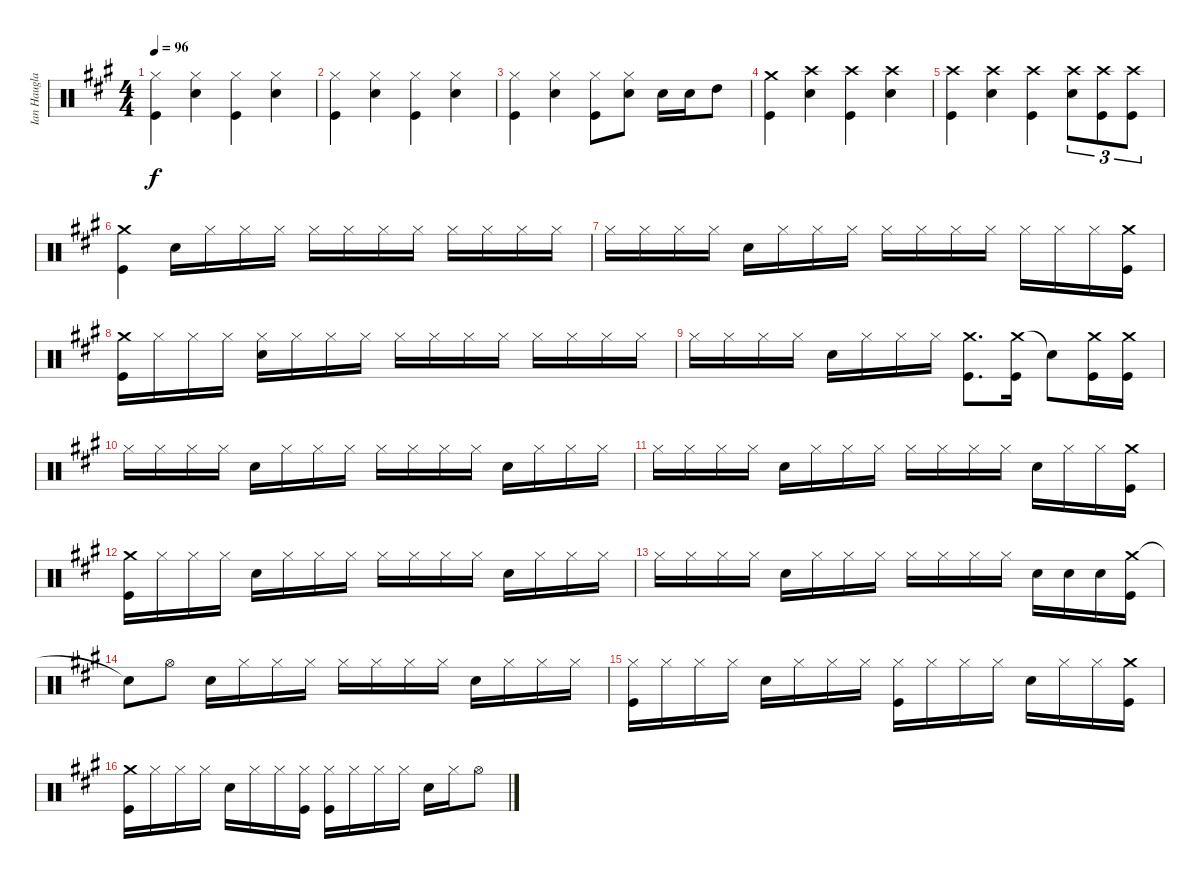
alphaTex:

\track ("Ian Haugland" "Ian Haugla") {instrument percussion}
\staff {score}
\articulation defaults
\ts (4 4)
\tempo 96
\clef neutral
\ks a
("Hi-Hat (closed)" "Kick (hit)").4{dy f} ("Hi-Hat (closed)" "Snare (hit) 2").4 ("Hi-Hat (closed)" "Kick (hit)").4 ("Hi-Hat (closed)" "Snare (hit) 2").4 |
("Hi-Hat (closed)" "Kick (hit)").4 ("Hi-Hat (closed)" "Snare (hit) 2").4 ("Hi-Hat (closed)" "Kick (hit)").4 ("Hi-Hat (closed)" "Snare (hit) 2").4 |
("Hi-Hat (closed)" "Kick (hit)").4 ("Hi-Hat (closed)" "Snare (hit) 2").4 ("Hi-Hat (closed)" "Kick (hit)").8 ("Hi-Hat (closed)" "Snare (hit) 2").8 "Snare (hit) 2".16 "Snare (hit) 2".16 "High Tom (hit)".8 |
("Crash medium (hit)" "Kick (hit)").4 ("Crash high (hit)" "Snare (hit) 2").4 ("Crash high (hit)" "Kick (hit)").4 ("Crash high (hit)" "Snare (hit) 2").4 |
("Crash high (hit)" "Kick (hit)").4 ("Crash high (hit)" "Snare (hit) 2").4 ("Crash high (hit)" "Kick (hit)").4 ("Crash high (hit)" "Snare (hit) 2").8{tu (3 2)} ("Crash high (hit)" "Kick (hit)").8{tu (3 2)} ("Crash high (hit)" "Kick (hit)").8{tu (3 2)} |
("Crash medium (hit)" "Kick (hit)").4 "Snare (hit) 2".16 "Hi-Hat (closed)".16 "Hi-Hat (closed)".16 "Hi-Hat (closed)".16 "Hi-Hat (closed)".16 "Hi-Hat (closed)".16 "Hi-Hat (closed)".16 "Hi-Hat (closed)".16 "Hi-Hat (closed)".16 "Hi-Hat (closed)".16 "Hi-Hat (closed)".16 "Hi-Hat (closed)".16 |
"Hi-Hat (closed)".16 "Hi-Hat (closed)".16 "Hi-Hat (closed)".16 "Hi-Hat (closed)".16 "Snare (hit) 2".16 "Hi-Hat (closed)".16 "Hi-Hat (closed)".16 "Hi-Hat (closed)".16 "Hi-Hat (closed)".16 "Hi-Hat (closed)".16 "Hi-Hat (closed)".16 "Hi-Hat (closed)".16 "Hi-Hat (closed)".16 "Hi-Hat (closed)".16 "Hi-Hat (closed)".16 ("Crash medium (hit)" "Kick (hit)").16 |
("Crash medium (hit)" "Kick (hit)").16 "Hi-Hat (closed)".16 "Hi-Hat (closed)".16 "Hi-Hat (closed)".16 ("Hi-Hat (closed)" "Snare (hit) 2").16 "Hi-Hat (closed)".16 "Hi-Hat (closed)".16 "Hi-Hat (closed)".16 "Hi-Hat (closed)".16 "Hi-Hat (closed)".16 "Hi-Hat (closed)".16 "Hi-Hat (closed)".16 "Hi-Hat (closed)".16 "Hi-Hat (closed)".16 "Hi-Hat (closed)".16 "Hi-Hat (closed)".16 |
"Hi-Hat (closed)".16 "Hi-Hat (closed)".16 "Hi-Hat (closed)".16 "Hi-Hat (closed)".16 "Snare (hit) 2".16 "Hi-Hat (closed)".16 "Hi-Hat (closed)".16 "Hi-Hat (closed)".16 ("Crash medium (hit)" "Kick (hit)").8{d} ("Crash medium (hit)" "Kick (hit)").16 "Snare (hit)"{t}.8 ("Crash medium (hit)" "Kick (hit)").16 ("Crash medium (hit)" "Kick (hit)").16 |
"Hi-Hat (closed)".16 "Hi-Hat (closed)".16 "Hi-Hat (closed)".16 "Hi-Hat (closed)".16 "Snare (hit) 2".16 "Hi-Hat (closed)".16 "Hi-Hat (closed)".16 "Hi-Hat (closed)".16 "Hi-Hat (closed)".16 "Hi-Hat (closed)".16 "Hi-Hat (closed)".16 "Hi-Hat (closed)".16 "Snare (hit) 2".16 "Hi-Hat (closed)".16 "Hi-Hat (closed)".16 "Hi-Hat (closed)".16 |
"Hi-Hat (closed)".16 "Hi-Hat (closed)".16 "Hi-Hat (closed)".16 "Hi-Hat (closed)".16 "Snare (hit) 2".16 "Hi-Hat (closed)".16 "Hi-Hat (closed)".16 "Hi-Hat (closed)".16 "Hi-Hat (closed)".16 "Hi-Hat (closed)".16 "Hi-Hat (closed)".16 "Hi-Hat (closed)".16 "Snare (hit) 2".16 "Hi-Hat (closed)".16 "Hi-Hat (closed)".16 ("Crash medium (hit)" "Kick (hit)").16 |
("Crash medium (hit)" "Kick (hit)").16 "Hi-Hat (closed)".16 "Hi-Hat (closed)".16 "Hi-Hat (closed)".16 "Snare (hit) 2".16 "Hi-Hat (closed)".16 "Hi-Hat (closed)".16 "Hi-Hat (closed)".16 "Hi-Hat (closed)".16 "Hi-Hat (closed)".16 "Hi-Hat (closed)".16 "Hi-Hat (closed)".16 "Snare (hit) 2".16 "Hi-Hat (closed)".16 "Hi-Hat (closed)".16 "Hi-Hat (closed)".16 |
"Hi-Hat (closed)".16 "Hi-Hat (closed)".16 "Hi-Hat (closed)".16 "Hi-Hat (closed)".16 "Snare (hit) 2".16 "Hi-Hat (closed)".16 "Hi-Hat (closed)".16 "Hi-Hat (closed)".16 "Hi-Hat (closed)".16 "Hi-Hat (closed)".16 "Hi-Hat (closed)".16 "Hi-Hat (closed)".16 "Snare (hit) 2".16 "Snare (hit) 2".16 "Snare (hit) 2".16 ("Crash medium (hit)" "Kick (hit)").16 |
"Snare (hit)"{t}.8 "Hi-Hat (open)".8 "Snare (hit) 2".16 "Hi-Hat (closed)".16 "Hi-Hat (closed)".16 "Hi-Hat (closed)".16 "Hi-Hat (closed)".16 "Hi-Hat (closed)".16 "Hi-Hat (closed)".16 "Hi-Hat (closed)".16 "Snare (hit) 2".16 "Hi-Hat (closed)".16 "Hi-Hat (closed)".16 "Hi-Hat (closed)".16 |
("Hi-Hat (closed)" "Kick (hit)").16 "Hi-Hat (closed)".16 "Hi-Hat (closed)".16 "Hi-Hat (closed)".16 "Snare (hit) 2".16 "Hi-Hat (closed)".16 "Hi-Hat (closed)".16 "Hi-Hat (closed)".16 ("Hi-Hat (closed)" "Kick (hit)").16 "Hi-Hat (closed)".16 "Hi-Hat (closed)".16 "Hi-Hat (closed)".16 "Snare (hit) 2".16 "Hi-Hat (closed)".16 "Hi-Hat (closed)".16 ("Crash medium (hit)" "Kick (hit)").16 |
("Crash medium (hit)" "Kick (hit)").16 "Hi-Hat (closed)".16 "Hi-Hat (closed)".16 "Hi-Hat (closed)".16 "Snare (hit) 2".16 "Hi-Hat (closed)".16 "Hi-Hat (closed)".16 ("Hi-Hat (closed)" "Kick (hit)").16 ("Hi-Hat (closed)" "Kick (hit)").16 "Hi-Hat (closed)".16 "Hi-Hat (closed)".16 "Hi-Hat (closed)".16 "Snare (hit) 2".16 "Hi-Hat (closed)".16 "Hi-Hat (open)".8
